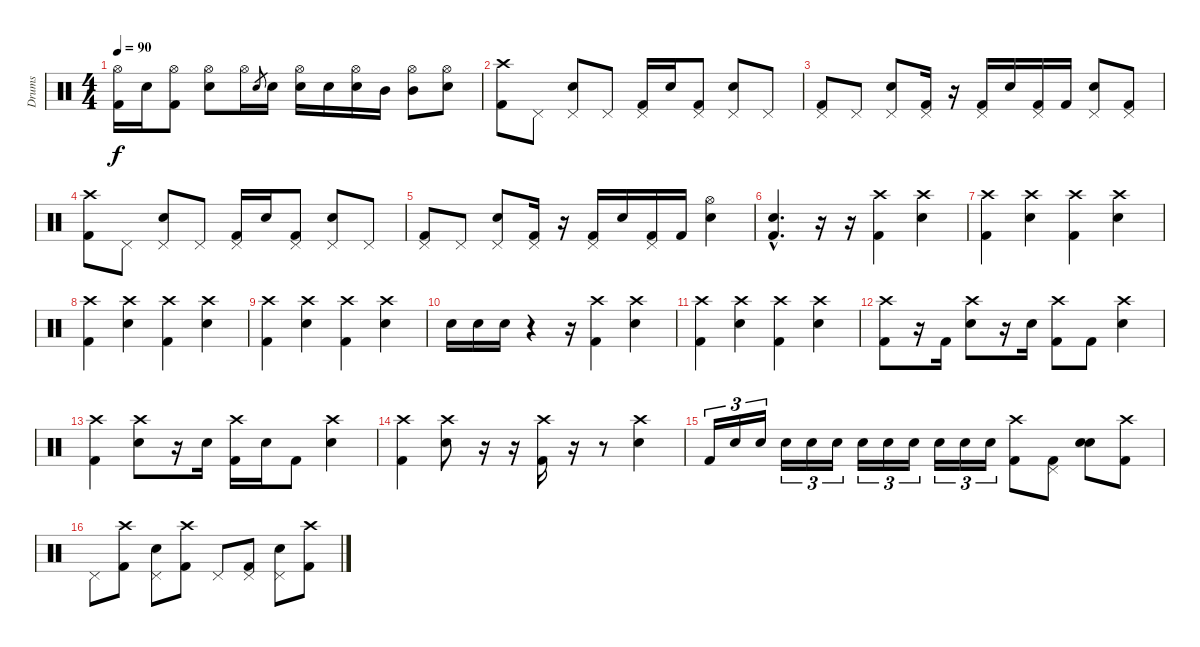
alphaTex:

\track ("Drums" "Drums") {instrument percussion}
\staff {score}
\articulation defaults
\ts (4 4)
\tempo 90
\clef neutral
\ks c
("Hi-Hat (open)" "Kick (hit) 2").16{dy f} "Electric Snare (hit)".16 ("Hi-Hat (open)" "Kick (hit) 2").8 ("Hi-Hat (open)" "Electric Snare (hit)").8 "Hi-Hat (open)".16 "Electric Snare (hit)".8{gr} "Electric Snare (hit)".16 ("Hi-Hat (open)" "Electric Snare (hit)").16 "Electric Snare (hit)".16 ("Hi-Hat (open)" "Electric Snare (hit)").16 "Mid Tom (hit)".16 ("Hi-Hat (open)" "Mid Tom (hit)").8 ("Hi-Hat (open)" "Electric Snare (hit)").8 |
("Crash high (hit)" "Kick (hit) 2").8 "Pedal Hi-Hat (hit)".8 ("Pedal Hi-Hat (hit)" "Electric Snare (hit)").8 "Pedal Hi-Hat (hit)".8 ("Pedal Hi-Hat (hit)" "Kick (hit) 2").16 "Electric Snare (hit)".16 ("Pedal Hi-Hat (hit)" "Kick (hit) 2").8 ("Pedal Hi-Hat (hit)" "Electric Snare (hit)").8 "Pedal Hi-Hat (hit)".8 |
("Pedal Hi-Hat (hit)" "Kick (hit) 2").8 "Pedal Hi-Hat (hit)".8 ("Pedal Hi-Hat (hit)" "Electric Snare (hit)").8 ("Pedal Hi-Hat (hit)" "Kick (hit) 2").16 r.16 ("Pedal Hi-Hat (hit)" "Kick (hit) 2").16 "Electric Snare (hit)".16 ("Pedal Hi-Hat (hit)" "Kick (hit) 2").16 "Kick (hit) 2".16 ("Pedal Hi-Hat (hit)" "Electric Snare (hit)").8 ("Pedal Hi-Hat (hit)" "Kick (hit) 2").8 |
("Crash high (hit)" "Kick (hit) 2").8 "Pedal Hi-Hat (hit)".8 ("Pedal Hi-Hat (hit)" "Electric Snare (hit)").8 "Pedal Hi-Hat (hit)".8 ("Pedal Hi-Hat (hit)" "Kick (hit) 2").16 "Electric Snare (hit)".16 ("Pedal Hi-Hat (hit)" "Kick (hit) 2").8 ("Pedal Hi-Hat (hit)" "Electric Snare (hit)").8 "Pedal Hi-Hat (hit)".8 |
("Pedal Hi-Hat (hit)" "Kick (hit) 2").8 "Pedal Hi-Hat (hit)".8 ("Pedal Hi-Hat (hit)" "Electric Snare (hit)").8 ("Pedal Hi-Hat (hit)" "Kick (hit) 2").16 r.16 ("Pedal Hi-Hat (hit)" "Kick (hit) 2").16 "Electric Snare (hit)".16 ("Pedal Hi-Hat (hit)" "Kick (hit) 2").16 "Kick (hit) 2".16 ("Hi-Hat (open)" "Electric Snare (hit)").4 |
("Electric Snare (hit)"{hac} "Kick (hit) 2"{hac}).4{d} r.16 r.16 ("Crash high (hit)" "Kick (hit) 2").4 ("Crash high (hit)" "Electric Snare (hit)").4 |
("Crash high (hit)" "Kick (hit) 2").4 ("Crash high (hit)" "Electric Snare (hit)").4 ("Crash high (hit)" "Kick (hit) 2").4 ("Crash high (hit)" "Electric Snare (hit)").4 |
("Crash high (hit)" "Kick (hit) 2").4 ("Crash high (hit)" "Electric Snare (hit)").4 ("Crash high (hit)" "Kick (hit) 2").4 ("Crash high (hit)" "Electric Snare (hit)").4 |
("Crash high (hit)" "Kick (hit) 2").4 ("Crash high (hit)" "Electric Snare (hit)").4 ("Crash high (hit)" "Kick (hit) 2").4 ("Crash high (hit)" "Electric Snare (hit)").4 |
"Electric Snare (hit)".16 "Electric Snare (hit)".16 "Electric Snare (hit)".16 r.4 r.16 ("Crash high (hit)" "Kick (hit) 2").4 ("Crash high (hit)" "Electric Snare (hit)").4 |
("Crash high (hit)" "Kick (hit) 2").4 ("Crash high (hit)" "Electric Snare (hit)").4 ("Crash high (hit)" "Kick (hit) 2").4 ("Crash high (hit)" "Electric Snare (hit)").4 |
("Crash high (hit)" "Kick (hit) 2").8 r.16 "Kick (hit) 2".16 ("Crash high (hit)" "Electric Snare (hit)").8 r.16 "Electric Snare (hit)".16 ("Crash high (hit)" "Kick (hit) 2").8 "Kick (hit) 2".8 ("Crash high (hit)" "Electric Snare (hit)").4 |
("Crash high (hit)" "Kick (hit) 2").4 ("Crash high (hit)" "Electric Snare (hit)").8 r.16 "Electric Snare (hit)".16 ("Crash high (hit)" "Kick (hit) 2").16 "Electric Snare (hit)".16 "Kick (hit) 2".8 ("Crash high (hit)" "Electric Snare (hit)").4 |
("Crash high (hit)" "Kick (hit) 2").4 ("Crash high (hit)" "Electric Snare (hit)").8 r.16 r.16 ("Crash high (hit)" "Kick (hit) 2").16 r.16 r.8 ("Crash high (hit)" "Electric Snare (hit)").4 |
"Kick (hit) 2".16{tu (3 2)} "Electric Snare (hit)".16{tu (3 2)} "Electric Snare (hit)".16{tu (3 2)} "Electric Snare (hit)".16{tu (3 2)} "Electric Snare (hit)".16{tu (3 2)} "Electric Snare (hit)".16{tu (3 2)} "Electric Snare (hit)".16{tu (3 2)} "Electric Snare (hit)".16{tu (3 2)} "Electric Snare (hit)".16{tu (3 2)} "Electric Snare (hit)".16{tu (3 2)} "Electric Snare (hit)".16{tu (3 2)} "Electric Snare (hit)".16{tu (3 2)} ("Crash high (hit)" "Kick (hit) 2").8 ("Pedal Hi-Hat (hit)" "Kick (hit) 2").8 ("Electric Snare (hit)" "Electric Snare (hit)").8 ("Crash high (hit)" "Kick (hit) 2").8 |
"Pedal Hi-Hat (hit)".8 ("Crash high (hit)" "Kick (hit) 2").8 ("Pedal Hi-Hat (hit)" "Electric Snare (hit)").8 ("Crash high (hit)" "Kick (hit) 2").8 "Pedal Hi-Hat (hit)".8 ("Pedal Hi-Hat (hit)" "Kick (hit) 2").8 ("Pedal Hi-Hat (hit)" "Electric Snare (hit)").8 ("Crash high (hit)" "Kick (hit) 2").8
